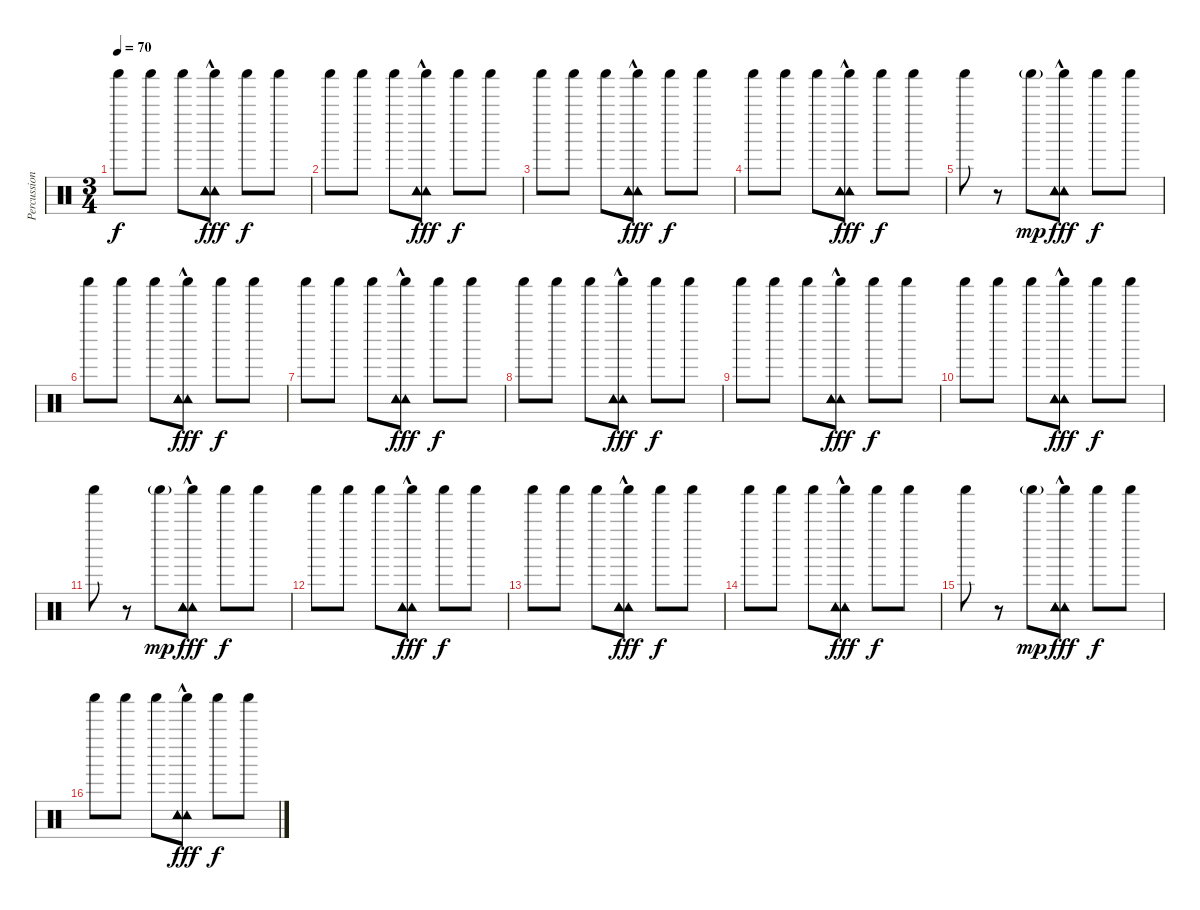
\track ("Percussion" "Percussion") {instrument percussion}
\staff {score}
\articulation defaults
\ts (3 4)
\tempo 70
\clef neutral
\ks c "Shaker (hit)".8{dy f} "Shaker (hit)".8 "Shaker (hit)".8
("Shaker (hit)" "Tambourine (hit)"{hac} "Tambourine (hit)"{hac} "Tambourine (hit)"{hac}).8{bd 60 dy fff} "Shaker (hit)".8{dy f} "Shaker (hit)".8 |
"Shaker (hit)".8 "Shaker (hit)".8 "Shaker (hit)".8 ("Shaker (hit)" "Tambourine (hit)"{hac} "Tambourine (hit)"{hac} "Tambourine (hit)"{hac}).8{bd 60 dy fff} "Shaker (hit)".8{dy f} "Shaker (hit)".8 |
"Shaker (hit)".8 "Shaker (hit)".8 "Shaker (hit)".8 ("Shaker (hit)" "Tambourine (hit)"{hac} "Tambourine (hit)"{hac} "Tambourine (hit)"{hac}).8{bd 60 dy fff} "Shaker (hit)".8{dy f} "Shaker (hit)".8 |
"Shaker (hit)".8 "Shaker (hit)".8 "Shaker (hit)".8 ("Shaker (hit)" "Tambourine (hit)"{hac} "Tambourine (hit)"{hac} "Tambourine (hit)"{hac}).8{bd 60 dy fff} "Shaker (hit)".8{dy f} "Shaker (hit)".8 |
"Shaker (hit)".8 r.8 "Shaker (hit)"{g}.8{dy mp} ("Shaker (hit)" "Tambourine (hit)"{hac} "Tambourine (hit)"{hac} "Tambourine (hit)"{hac}).8{bd 60 dy fff} "Shaker (hit)".8{dy f} "Shaker (hit)".8 |
"Shaker (hit)".8 "Shaker (hit)".8 "Shaker (hit)".8 ("Shaker (hit)" "Tambourine (hit)"{hac} "Tambourine (hit)"{hac} "Tambourine (hit)"{hac}).8{bd 60 dy fff} "Shaker (hit)".8{dy f} "Shaker (hit)".8 |
"Shaker (hit)".8 "Shaker (hit)".8 "Shaker (hit)".8 ("Shaker (hit)" "Tambourine (hit)"{hac} "Tambourine (hit)"{hac} "Tambourine (hit)"{hac}).8{bd 60 dy fff} "Shaker (hit)".8{dy f} "Shaker (hit)".8 |
"Shaker (hit)".8 "Shaker (hit)".8 "Shaker (hit)".8 ("Shaker (hit)" "Tambourine (hit)"{hac} "Tambourine (hit)"{hac} "Tambourine (hit)"{hac}).8{bd 60 dy fff} "Shaker (hit)".8{dy f} "Shaker (hit)".8 |
"Shaker (hit)".8 "Shaker (hit)".8 "Shaker (hit)".8 ("Shaker (hit)" "Tambourine (hit)"{hac} "Tambourine (hit)"{hac} "Tambourine (hit)"{hac}).8{bd 60 dy fff} "Shaker (hit)".8{dy f} "Shaker (hit)".8 |
"Shaker (hit)".8 "Shaker (hit)".8 "Shaker (hit)".8 ("Shaker (hit)" "Tambourine (hit)"{hac} "Tambourine (hit)"{hac} "Tambourine (hit)"{hac}).8{bd 60 dy fff} "Shaker (hit)".8{dy f} "Shaker (hit)".8 |
"Shaker (hit)".8 r.8 "Shaker (hit)"{g}.8{dy mp} ("Shaker (hit)" "Tambourine (hit)"{hac} "Tambourine (hit)"{hac} "Tambourine (hit)"{hac}).8{bd 60 dy fff} "Shaker (hit)".8{dy f} "Shaker (hit)".8 |
"Shaker (hit)".8 "Shaker (hit)".8 "Shaker (hit)".8 ("Shaker (hit)" "Tambourine (hit)"{hac} "Tambourine (hit)"{hac} "Tambourine (hit)"{hac}).8{bd 60 dy fff} "Shaker (hit)".8{dy f} "Shaker (hit)".8 |
"Shaker (hit)".8 "Shaker (hit)".8 "Shaker (hit)".8 ("Shaker (hit)" "Tambourine (hit)"{hac} "Tambourine (hit)"{hac} "Tambourine (hit)"{hac}).8{bd 60 dy fff} "Shaker (hit)".8{dy f} "Shaker (hit)".8 |
"Shaker (hit)".8 "Shaker (hit)".8 "Shaker (hit)".8 ("Shaker (hit)" "Tambourine (hit)"{hac} "Tambourine (hit)"{hac} "Tambourine (hit)"{hac}).8{bd 60 dy fff} "Shaker (hit)".8{dy f} "Shaker (hit)".8 |
"Shaker (hit)".8 r.8 "Shaker (hit)"{g}.8{dy mp} ("Shaker (hit)" "Tambourine (hit)"{hac} "Tambourine (hit)"{hac} "Tambourine (hit)"{hac}).8{bd 60 dy fff} "Shaker (hit)".8{dy f} "Shaker (hit)".8 |
"Shaker (hit)".8 "Shaker (hit)".8 "Shaker (hit)".8 ("Shaker (hit)" "Tambourine (hit)"{hac} "Tambourine (hit)"{hac} "Tambourine (hit)"{hac}).8{bd 60 dy fff} "Shaker (hit)".8{dy f} "Shaker (hit)".8
